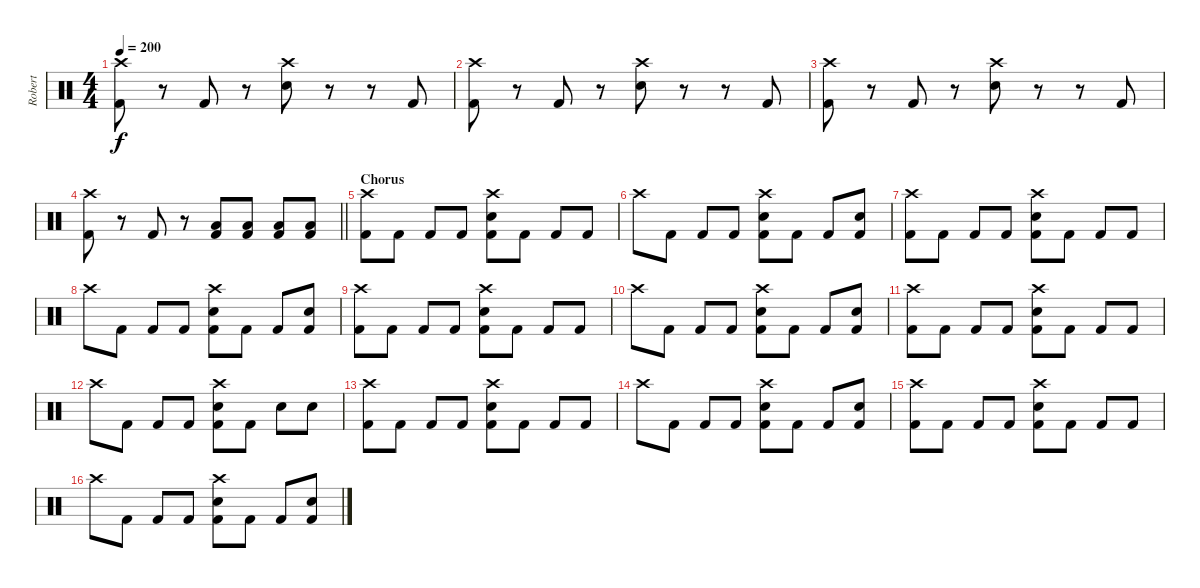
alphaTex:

\track ("Robert" "Robert") {instrument percussion}
\staff {score}
\articulation defaults
\ts (4 4)
\tempo 200
\clef neutral
\ks c
("Crash high (hit)" "Kick (hit) 2").8{dy f} r.8 "Kick (hit) 2".8 r.8 ("Crash high (hit)" "Electric Snare (hit)").8 r.8 r.8 "Kick (hit) 2".8 |
("Crash high (hit)" "Kick (hit) 2").8 r.8 "Kick (hit) 2".8 r.8 ("Crash high (hit)" "Electric Snare (hit)").8 r.8 r.8 "Kick (hit) 2".8 |
("Crash high (hit)" "Kick (hit) 2").8 r.8 "Kick (hit) 2".8 r.8 ("Crash high (hit)" "Electric Snare (hit)").8 r.8 r.8 "Kick (hit) 2".8 |
\barLineRight lightlight
("Crash high (hit)" "Kick (hit) 2").8 r.8 "Kick (hit) 2".8 r.8 ("Low Tom (hit)" "Kick (hit) 2").8 ("Low Tom (hit)" "Kick (hit) 2").8 ("Low Tom (hit)" "Kick (hit) 2").8 ("Low Tom (hit)" "Kick (hit) 2").8 |
\section ("" "Chorus")
("Crash high (hit)" "Kick (hit) 2").8 "Kick (hit) 2".8 "Kick (hit) 2".8 "Kick (hit) 2".8 ("Crash high (hit)" "Electric Snare (hit)" "Kick (hit) 2").8 "Kick (hit) 2".8 "Kick (hit) 2".8 "Kick (hit) 2".8 |
"Crash high (hit)".8 "Kick (hit) 2".8 "Kick (hit) 2".8 "Kick (hit) 2".8 ("Crash high (hit)" "Electric Snare (hit)" "Kick (hit) 2").8 "Kick (hit) 2".8 "Kick (hit) 2".8 ("Electric Snare (hit)" "Kick (hit) 2").8 |
("Crash high (hit)" "Kick (hit) 2").8 "Kick (hit) 2".8 "Kick (hit) 2".8 "Kick (hit) 2".8 ("Crash high (hit)" "Electric Snare (hit)" "Kick (hit) 2").8 "Kick (hit) 2".8 "Kick (hit) 2".8 "Kick (hit) 2".8 |
"Crash high (hit)".8 "Kick (hit) 2".8 "Kick (hit) 2".8 "Kick (hit) 2".8 ("Crash high (hit)" "Electric Snare (hit)" "Kick (hit) 2").8 "Kick (hit) 2".8 "Kick (hit) 2".8 ("Electric Snare (hit)" "Kick (hit) 2").8 |
("Crash high (hit)" "Kick (hit) 2").8 "Kick (hit) 2".8 "Kick (hit) 2".8 "Kick (hit) 2".8 ("Crash high (hit)" "Electric Snare (hit)" "Kick (hit) 2").8 "Kick (hit) 2".8 "Kick (hit) 2".8 "Kick (hit) 2".8 |
"Crash high (hit)".8 "Kick (hit) 2".8 "Kick (hit) 2".8 "Kick (hit) 2".8 ("Crash high (hit)" "Electric Snare (hit)" "Kick (hit) 2").8 "Kick (hit) 2".8 "Kick (hit) 2".8 ("Electric Snare (hit)" "Kick (hit) 2").8 |
("Crash high (hit)" "Kick (hit) 2").8 "Kick (hit) 2".8 "Kick (hit) 2".8 "Kick (hit) 2".8 ("Crash high (hit)" "Electric Snare (hit)" "Kick (hit) 2").8 "Kick (hit) 2".8 "Kick (hit) 2".8 "Kick (hit) 2".8 |
"Crash high (hit)".8 "Kick (hit) 2".8 "Kick (hit) 2".8 "Kick (hit) 2".8 ("Crash high (hit)" "Electric Snare (hit)" "Kick (hit) 2").8 "Kick (hit) 2".8 "Electric Snare (hit)".8 "Electric Snare (hit)".8 |
("Crash high (hit)" "Kick (hit) 2").8 "Kick (hit) 2".8 "Kick (hit) 2".8 "Kick (hit) 2".8 ("Crash high (hit)" "Electric Snare (hit)" "Kick (hit) 2").8 "Kick (hit) 2".8 "Kick (hit) 2".8 "Kick (hit) 2".8 |
"Crash high (hit)".8 "Kick (hit) 2".8 "Kick (hit) 2".8 "Kick (hit) 2".8 ("Crash high (hit)" "Electric Snare (hit)" "Kick (hit) 2").8 "Kick (hit) 2".8 "Kick (hit) 2".8 ("Electric Snare (hit)" "Kick (hit) 2").8 |
("Crash high (hit)" "Kick (hit) 2").8 "Kick (hit) 2".8 "Kick (hit) 2".8 "Kick (hit) 2".8 ("Crash high (hit)" "Electric Snare (hit)" "Kick (hit) 2").8 "Kick (hit) 2".8 "Kick (hit) 2".8 "Kick (hit) 2".8 |
"Crash high (hit)".8 "Kick (hit) 2".8 "Kick (hit) 2".8 "Kick (hit) 2".8 ("Crash high (hit)" "Electric Snare (hit)" "Kick (hit) 2").8 "Kick (hit) 2".8 "Kick (hit) 2".8 ("Electric Snare (hit)" "Kick (hit) 2").8
